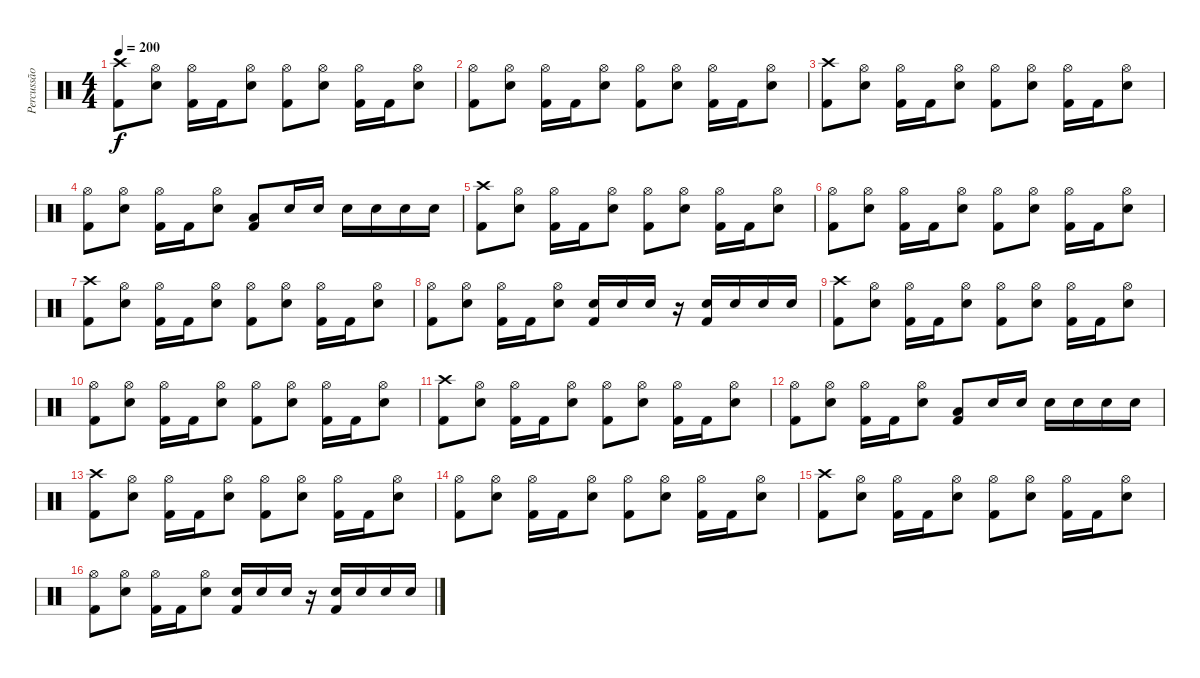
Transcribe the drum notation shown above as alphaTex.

\track ("Percussão" "Percussão") {instrument percussion}
\staff {score}
\articulation defaults
\ts (4 4)
\tempo 200
\clef neutral
\ks c
("Crash high (hit)" "Kick (hit) 2").8{dy f} ("Hi-Hat (open)" "Snare (hit) 2").8 ("Hi-Hat (open)" "Kick (hit) 2").16 "Kick (hit) 2".16 ("Hi-Hat (open)" "Snare (hit) 2").8 ("Hi-Hat (open)" "Kick (hit) 2").8 ("Hi-Hat (open)" "Snare (hit) 2").8 ("Hi-Hat (open)" "Kick (hit) 2").16 "Kick (hit) 2".16 ("Hi-Hat (open)" "Snare (hit) 2").8 |
("Hi-Hat (open)" "Kick (hit) 2").8 ("Hi-Hat (open)" "Snare (hit) 2").8 ("Hi-Hat (open)" "Kick (hit) 2").16 "Kick (hit) 2".16 ("Hi-Hat (open)" "Snare (hit) 2").8 ("Hi-Hat (open)" "Kick (hit) 2").8 ("Hi-Hat (open)" "Snare (hit) 2").8 ("Hi-Hat (open)" "Kick (hit) 2").16 "Kick (hit) 2".16 ("Hi-Hat (open)" "Snare (hit) 2").8 |
("Crash high (hit)" "Kick (hit) 2").8 ("Hi-Hat (open)" "Snare (hit) 2").8 ("Hi-Hat (open)" "Kick (hit) 2").16 "Kick (hit) 2".16 ("Hi-Hat (open)" "Snare (hit) 2").8 ("Hi-Hat (open)" "Kick (hit) 2").8 ("Hi-Hat (open)" "Snare (hit) 2").8 ("Hi-Hat (open)" "Kick (hit) 2").16 "Kick (hit) 2".16 ("Hi-Hat (open)" "Snare (hit) 2").8 |
("Hi-Hat (open)" "Kick (hit) 2").8 ("Hi-Hat (open)" "Snare (hit) 2").8 ("Hi-Hat (open)" "Kick (hit) 2").16 "Kick (hit) 2".16 ("Hi-Hat (open)" "Snare (hit) 2").8 ("Low Tom (hit)" "Kick (hit) 2").8 "Snare (hit) 2".16 "Snare (hit) 2".16 "Snare (hit) 2".16 "Snare (hit) 2".16 "Snare (hit) 2".16 "Snare (hit) 2".16 |
("Crash high (hit)" "Kick (hit) 2").8 ("Hi-Hat (open)" "Snare (hit) 2").8 ("Hi-Hat (open)" "Kick (hit) 2").16 "Kick (hit) 2".16 ("Hi-Hat (open)" "Snare (hit) 2").8 ("Hi-Hat (open)" "Kick (hit) 2").8 ("Hi-Hat (open)" "Snare (hit) 2").8 ("Hi-Hat (open)" "Kick (hit) 2").16 "Kick (hit) 2".16 ("Hi-Hat (open)" "Snare (hit) 2").8 |
("Hi-Hat (open)" "Kick (hit) 2").8 ("Hi-Hat (open)" "Snare (hit) 2").8 ("Hi-Hat (open)" "Kick (hit) 2").16 "Kick (hit) 2".16 ("Hi-Hat (open)" "Snare (hit) 2").8 ("Hi-Hat (open)" "Kick (hit) 2").8 ("Hi-Hat (open)" "Snare (hit) 2").8 ("Hi-Hat (open)" "Kick (hit) 2").16 "Kick (hit) 2".16 ("Hi-Hat (open)" "Snare (hit) 2").8 |
("Crash high (hit)" "Kick (hit) 2").8 ("Hi-Hat (open)" "Snare (hit) 2").8 ("Hi-Hat (open)" "Kick (hit) 2").16 "Kick (hit) 2".16 ("Hi-Hat (open)" "Snare (hit) 2").8 ("Hi-Hat (open)" "Kick (hit) 2").8 ("Hi-Hat (open)" "Snare (hit) 2").8 ("Hi-Hat (open)" "Kick (hit) 2").16 "Kick (hit) 2".16 ("Hi-Hat (open)" "Snare (hit) 2").8 |
("Hi-Hat (open)" "Kick (hit) 2").8 ("Hi-Hat (open)" "Snare (hit) 2").8 ("Hi-Hat (open)" "Kick (hit) 2").16 "Kick (hit) 2".16 ("Hi-Hat (open)" "Snare (hit) 2").8 ("Snare (hit) 2" "Kick (hit) 2").16 "Snare (hit) 2".16 "Snare (hit) 2".16 r.16 ("Snare (hit) 2" "Kick (hit) 2").16 "Snare (hit) 2".16 "Snare (hit) 2".16 "Snare (hit) 2".16 |
("Crash high (hit)" "Kick (hit) 2").8 ("Hi-Hat (open)" "Snare (hit) 2").8 ("Hi-Hat (open)" "Kick (hit) 2").16 "Kick (hit) 2".16 ("Hi-Hat (open)" "Snare (hit) 2").8 ("Hi-Hat (open)" "Kick (hit) 2").8 ("Hi-Hat (open)" "Snare (hit) 2").8 ("Hi-Hat (open)" "Kick (hit) 2").16 "Kick (hit) 2".16 ("Hi-Hat (open)" "Snare (hit) 2").8 |
("Hi-Hat (open)" "Kick (hit) 2").8 ("Hi-Hat (open)" "Snare (hit) 2").8 ("Hi-Hat (open)" "Kick (hit) 2").16 "Kick (hit) 2".16 ("Hi-Hat (open)" "Snare (hit) 2").8 ("Hi-Hat (open)" "Kick (hit) 2").8 ("Hi-Hat (open)" "Snare (hit) 2").8 ("Hi-Hat (open)" "Kick (hit) 2").16 "Kick (hit) 2".16 ("Hi-Hat (open)" "Snare (hit) 2").8 |
("Crash high (hit)" "Kick (hit) 2").8 ("Hi-Hat (open)" "Snare (hit) 2").8 ("Hi-Hat (open)" "Kick (hit) 2").16 "Kick (hit) 2".16 ("Hi-Hat (open)" "Snare (hit) 2").8 ("Hi-Hat (open)" "Kick (hit) 2").8 ("Hi-Hat (open)" "Snare (hit) 2").8 ("Hi-Hat (open)" "Kick (hit) 2").16 "Kick (hit) 2".16 ("Hi-Hat (open)" "Snare (hit) 2").8 |
("Hi-Hat (open)" "Kick (hit) 2").8 ("Hi-Hat (open)" "Snare (hit) 2").8 ("Hi-Hat (open)" "Kick (hit) 2").16 "Kick (hit) 2".16 ("Hi-Hat (open)" "Snare (hit) 2").8 ("Low Tom (hit)" "Kick (hit) 2").8 "Snare (hit) 2".16 "Snare (hit) 2".16 "Snare (hit) 2".16 "Snare (hit) 2".16 "Snare (hit) 2".16 "Snare (hit) 2".16 |
("Crash high (hit)" "Kick (hit) 2").8 ("Hi-Hat (open)" "Snare (hit) 2").8 ("Hi-Hat (open)" "Kick (hit) 2").16 "Kick (hit) 2".16 ("Hi-Hat (open)" "Snare (hit) 2").8 ("Hi-Hat (open)" "Kick (hit) 2").8 ("Hi-Hat (open)" "Snare (hit) 2").8 ("Hi-Hat (open)" "Kick (hit) 2").16 "Kick (hit) 2".16 ("Hi-Hat (open)" "Snare (hit) 2").8 |
("Hi-Hat (open)" "Kick (hit) 2").8 ("Hi-Hat (open)" "Snare (hit) 2").8 ("Hi-Hat (open)" "Kick (hit) 2").16 "Kick (hit) 2".16 ("Hi-Hat (open)" "Snare (hit) 2").8 ("Hi-Hat (open)" "Kick (hit) 2").8 ("Hi-Hat (open)" "Snare (hit) 2").8 ("Hi-Hat (open)" "Kick (hit) 2").16 "Kick (hit) 2".16 ("Hi-Hat (open)" "Snare (hit) 2").8 |
("Crash high (hit)" "Kick (hit) 2").8 ("Hi-Hat (open)" "Snare (hit) 2").8 ("Hi-Hat (open)" "Kick (hit) 2").16 "Kick (hit) 2".16 ("Hi-Hat (open)" "Snare (hit) 2").8 ("Hi-Hat (open)" "Kick (hit) 2").8 ("Hi-Hat (open)" "Snare (hit) 2").8 ("Hi-Hat (open)" "Kick (hit) 2").16 "Kick (hit) 2".16 ("Hi-Hat (open)" "Snare (hit) 2").8 |
("Hi-Hat (open)" "Kick (hit) 2").8 ("Hi-Hat (open)" "Snare (hit) 2").8 ("Hi-Hat (open)" "Kick (hit) 2").16 "Kick (hit) 2".16 ("Hi-Hat (open)" "Snare (hit) 2").8 ("Snare (hit) 2" "Kick (hit) 2").16 "Snare (hit) 2".16 "Snare (hit) 2".16 r.16 ("Snare (hit) 2" "Kick (hit) 2").16 "Snare (hit) 2".16 "Snare (hit) 2".16 "Snare (hit) 2".16
